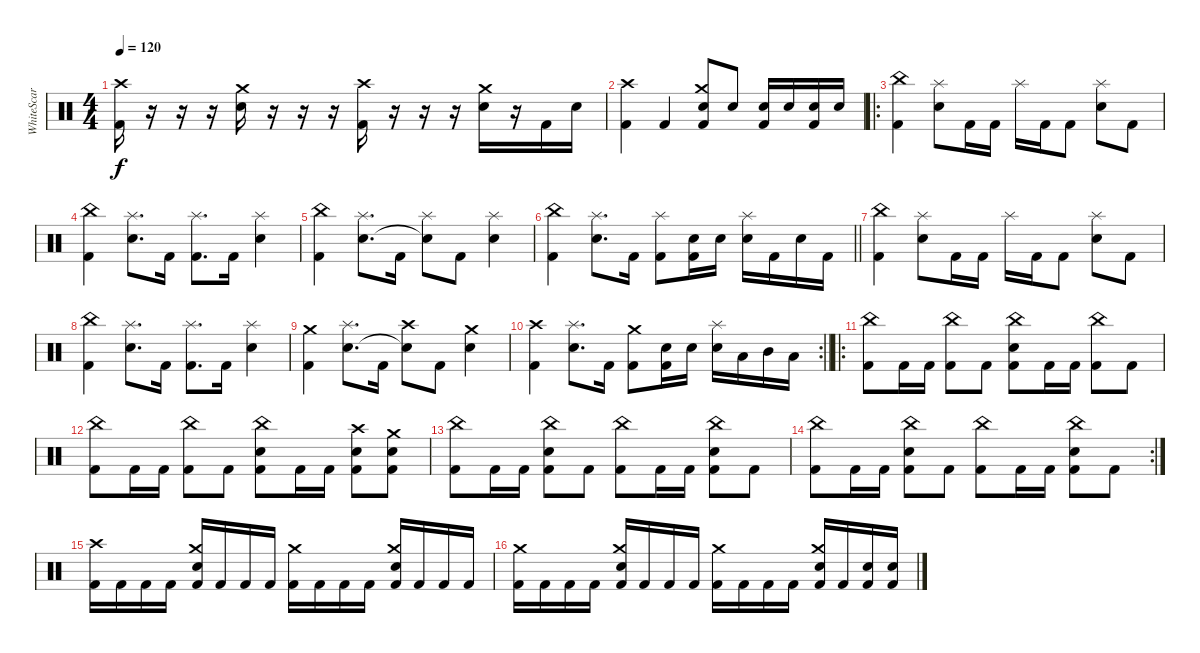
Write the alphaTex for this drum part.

\track ("WhiteScar" "WhiteScar") {instrument percussion}
\staff {score}
\articulation defaults
\ts (4 4)
\tempo 120
\clef neutral
\ks c
("Crash high (hit)" "Kick (hit) 2").16{dy f} r.16 r.16 r.16 ("Crash medium (hit)" "Snare (hit) 2").16 r.16 r.16 r.16 ("Crash high (hit)" "Kick (hit) 2").16 r.16 r.16 r.16 ("Crash medium (hit)" "Snare (hit) 2").16 r.16 "Kick (hit) 2".16 "Snare (hit) 2".16 |
("Crash high (hit)" "Kick (hit) 2").4 "Kick (hit) 2".4 ("Crash medium (hit)" "Snare (hit) 2" "Kick (hit) 2").8 "Snare (hit) 2".8 ("Snare (hit) 2" "Kick (hit) 2").16 "Snare (hit) 2".16 ("Snare (hit) 2" "Kick (hit) 2").16 "Snare (hit) 2".16 |
\ro
("China (hit)" "Kick (hit) 2").4 ("Splash (hit)" "Snare (hit) 2").8 "Kick (hit) 2".16 "Kick (hit) 2".16 "Splash (hit)".16 "Kick (hit) 2".16 "Kick (hit) 2".8 ("Splash (hit)" "Snare (hit) 2").8 "Kick (hit) 2".8 |
("China (hit)" "Kick (hit) 2").4 ("Splash (hit)" "Snare (hit) 2").8{d} "Kick (hit) 2".16 ("Splash (hit)" "Kick (hit) 2").8{d} "Kick (hit) 2".16 ("Splash (hit)" "Snare (hit) 2").4 |
("China (hit)" "Kick (hit) 2").4 ("Splash (hit)" "Snare (hit) 2").8{d} "Kick (hit) 2".16 ("Splash (hit)" "Snare (hit)"{t}).8 "Kick (hit) 2".8 ("Splash (hit)" "Snare (hit) 2").4 |
\barLineRight lightlight
("China (hit)" "Kick (hit) 2").4 ("Splash (hit)" "Snare (hit) 2").8{d} "Kick (hit) 2".16 ("Splash (hit)" "Kick (hit) 2").8 ("Snare (hit) 2" "Kick (hit) 2").16 "Snare (hit) 2".16 ("Splash (hit)" "Snare (hit) 2").16 "Kick (hit) 2".16 "Snare (hit) 2".16 "Kick (hit) 2".16 |
("China (hit)" "Kick (hit) 2").4 ("Splash (hit)" "Snare (hit) 2").8 "Kick (hit) 2".16 "Kick (hit) 2".16 "Splash (hit)".16 "Kick (hit) 2".16 "Kick (hit) 2".8 ("Splash (hit)" "Snare (hit) 2").8 "Kick (hit) 2".8 |
("China (hit)" "Kick (hit) 2").4 ("Splash (hit)" "Snare (hit) 2").8{d} "Kick (hit) 2".16 ("Splash (hit)" "Kick (hit) 2").8{d} "Kick (hit) 2".16 ("Splash (hit)" "Snare (hit) 2").4 |
("Crash medium (hit)" "Kick (hit) 2").4 ("Splash (hit)" "Snare (hit) 2").8{d} "Kick (hit) 2".16 ("Crash high (hit)" "Snare (hit)"{t}).8 "Kick (hit) 2".8 ("Crash medium (hit)" "Snare (hit) 2").4 |
\rc 2
\barLineRight lightlight
("Crash high (hit)" "Kick (hit) 2").4 ("Splash (hit)" "Snare (hit) 2").8{d} "Kick (hit) 2".16 ("Crash medium (hit)" "Kick (hit) 2").8 ("Snare (hit) 2" "Kick (hit) 2").16 "Snare (hit) 2".16 ("Splash (hit)" "Snare (hit) 2").16 "Low Tom (hit)".16 "Mid Tom (hit)".16 "Low Floor Tom (hit)".16 |
\ro
("China (hit)" "Kick (hit) 2").8 "Kick (hit) 2".16 "Kick (hit) 2".16 ("China (hit)" "Kick (hit) 2").8 "Kick (hit) 2".8 ("Snare (hit) 2" "China (hit)" "Kick (hit) 2").8 "Kick (hit) 2".16 "Kick (hit) 2".16 ("China (hit)" "Kick (hit) 2").8 "Kick (hit) 2".8 |
("China (hit)" "Kick (hit) 2").8 "Kick (hit) 2".16 "Kick (hit) 2".16 ("China (hit)" "Kick (hit) 2").8 "Kick (hit) 2".8 ("Snare (hit) 2" "China (hit)" "Kick (hit) 2").8 "Kick (hit) 2".16 "Kick (hit) 2".16 ("Snare (hit) 2" "Crash high (hit)" "Kick (hit) 2").8 ("Snare (hit) 2" "Crash medium (hit)" "Kick (hit) 2").8 |
("China (hit)" "Kick (hit) 2").8 "Kick (hit) 2".16 "Kick (hit) 2".16 ("Snare (hit) 2" "China (hit)" "Kick (hit) 2").8 "Kick (hit) 2".8 ("China (hit)" "Kick (hit) 2").8 "Kick (hit) 2".16 "Kick (hit) 2".16 ("Snare (hit) 2" "China (hit)" "Kick (hit) 2").8 "Kick (hit) 2".8 |
\rc 2
("China (hit)" "Kick (hit) 2").8 "Kick (hit) 2".16 "Kick (hit) 2".16 ("Snare (hit) 2" "China (hit)" "Kick (hit) 2").8 "Kick (hit) 2".8 ("China (hit)" "Kick (hit) 2").8 "Kick (hit) 2".16 "Kick (hit) 2".16 ("Snare (hit) 2" "China (hit)" "Kick (hit) 2").8 "Kick (hit) 2".8 |
("Crash high (hit)" "Kick (hit) 2").16 "Kick (hit) 2".16 "Kick (hit) 2".16 "Kick (hit) 2".16 ("Crash medium (hit)" "Snare (hit) 2" "Kick (hit) 2").16 "Kick (hit) 2".16 "Kick (hit) 2".16 "Kick (hit) 2".16 ("Crash medium (hit)" "Kick (hit) 2").16 "Kick (hit) 2".16 "Kick (hit) 2".16 "Kick (hit) 2".16 ("Crash medium (hit)" "Snare (hit) 2" "Kick (hit) 2").16 "Kick (hit) 2".16 "Kick (hit) 2".16 "Kick (hit) 2".16 |
("Crash medium (hit)" "Kick (hit) 2").16 "Kick (hit) 2".16 "Kick (hit) 2".16 "Kick (hit) 2".16 ("Crash medium (hit)" "Snare (hit) 2" "Kick (hit) 2").16 "Kick (hit) 2".16 "Kick (hit) 2".16 "Kick (hit) 2".16 ("Crash medium (hit)" "Kick (hit) 2").16 "Kick (hit) 2".16 "Kick (hit) 2".16 "Kick (hit) 2".16 ("Crash medium (hit)" "Snare (hit) 2" "Kick (hit) 2").16 "Kick (hit) 2".16 ("Snare (hit) 2" "Kick (hit) 2").16 ("Snare (hit) 2" "Kick (hit) 2").16
